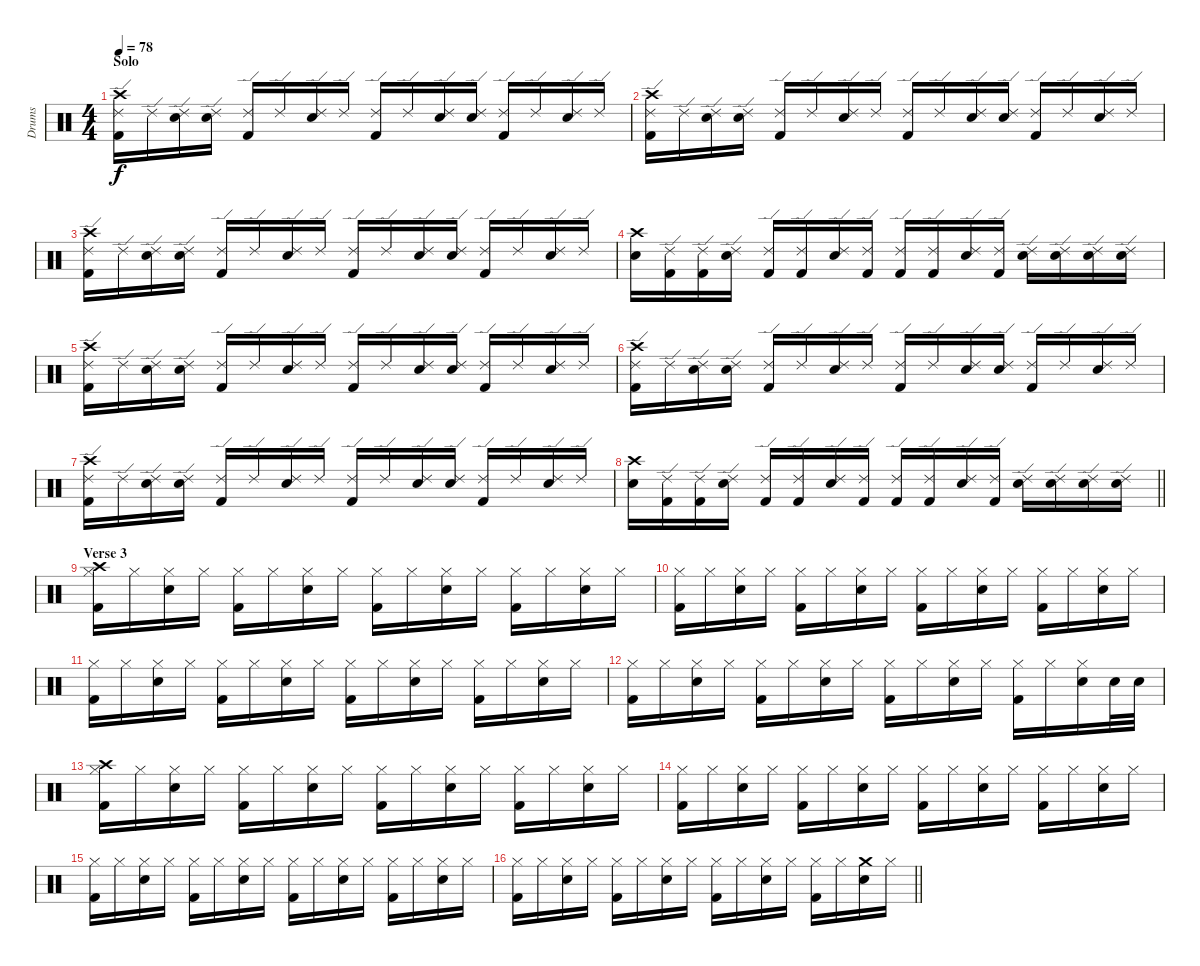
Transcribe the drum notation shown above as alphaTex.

\track ("Drums" "Drums") {instrument percussion}
\staff {score}
\articulation defaults
\ts (4 4)
\section ("" "Solo")
\tempo 78
\clef neutral
\ks c
("Crash high (hit)" "Ride (edge) 2" "Kick (hit) 2").16{dy f} "Ride (edge) 2".16 ("Ride (edge) 2" "Snare (hit) 2").16 ("Ride (edge) 2" "Snare (hit) 2").16 ("Ride (edge) 2" "Kick (hit) 2").16 "Ride (edge) 2".16 ("Ride (edge) 2" "Snare (hit) 2").16 "Ride (edge) 2".16 ("Ride (edge) 2" "Kick (hit) 2").16 "Ride (edge) 2".16 ("Ride (edge) 2" "Snare (hit) 2").16 ("Ride (edge) 2" "Snare (hit) 2").16 ("Ride (edge) 2" "Kick (hit) 2").16 "Ride (edge) 2".16 ("Ride (edge) 2" "Snare (hit) 2").16 "Ride (edge) 2".16 |
("Crash high (hit)" "Ride (edge) 2" "Kick (hit) 2").16 "Ride (edge) 2".16 ("Ride (edge) 2" "Snare (hit) 2").16 ("Ride (edge) 2" "Snare (hit) 2").16 ("Ride (edge) 2" "Kick (hit) 2").16 "Ride (edge) 2".16 ("Ride (edge) 2" "Snare (hit) 2").16 "Ride (edge) 2".16 ("Ride (edge) 2" "Kick (hit) 2").16 "Ride (edge) 2".16 ("Ride (edge) 2" "Snare (hit) 2").16 ("Ride (edge) 2" "Snare (hit) 2").16 ("Ride (edge) 2" "Kick (hit) 2").16 "Ride (edge) 2".16 ("Ride (edge) 2" "Snare (hit) 2").16 "Ride (edge) 2".16 |
("Crash high (hit)" "Ride (edge) 2" "Kick (hit) 2").16 "Ride (edge) 2".16 ("Ride (edge) 2" "Snare (hit) 2").16 ("Ride (edge) 2" "Snare (hit) 2").16 ("Ride (edge) 2" "Kick (hit) 2").16 "Ride (edge) 2".16 ("Ride (edge) 2" "Snare (hit) 2").16 "Ride (edge) 2".16 ("Ride (edge) 2" "Kick (hit) 2").16 "Ride (edge) 2".16 ("Ride (edge) 2" "Snare (hit) 2").16 ("Ride (edge) 2" "Snare (hit) 2").16 ("Ride (edge) 2" "Kick (hit) 2").16 "Ride (edge) 2".16 ("Ride (edge) 2" "Snare (hit) 2").16 "Ride (edge) 2".16 |
("Crash high (hit)" "Snare (hit) 2").16 ("Ride (edge) 2" "Kick (hit) 2").16 ("Ride (edge) 2" "Kick (hit) 2").16 ("Ride (edge) 2" "Snare (hit) 2").16 ("Ride (edge) 2" "Kick (hit) 2").16 ("Ride (edge) 2" "Kick (hit) 2").16 ("Ride (edge) 2" "Snare (hit) 2").16 ("Ride (edge) 2" "Kick (hit) 2").16 ("Ride (edge) 2" "Kick (hit) 2").16 ("Ride (edge) 2" "Kick (hit) 2").16 ("Ride (edge) 2" "Snare (hit) 2").16 ("Ride (edge) 2" "Kick (hit) 2").16 ("Ride (edge) 2" "Snare (hit) 2").16 ("Ride (edge) 2" "Snare (hit) 2").16 ("Ride (edge) 2" "Snare (hit) 2").16 ("Ride (edge) 2" "Snare (hit) 2").16 |
("Crash high (hit)" "Ride (edge) 2" "Kick (hit) 2").16 "Ride (edge) 2".16 ("Ride (edge) 2" "Snare (hit) 2").16 ("Ride (edge) 2" "Snare (hit) 2").16 ("Ride (edge) 2" "Kick (hit) 2").16 "Ride (edge) 2".16 ("Ride (edge) 2" "Snare (hit) 2").16 "Ride (edge) 2".16 ("Ride (edge) 2" "Kick (hit) 2").16 "Ride (edge) 2".16 ("Ride (edge) 2" "Snare (hit) 2").16 ("Ride (edge) 2" "Snare (hit) 2").16 ("Ride (edge) 2" "Kick (hit) 2").16 "Ride (edge) 2".16 ("Ride (edge) 2" "Snare (hit) 2").16 "Ride (edge) 2".16 |
("Crash high (hit)" "Ride (edge) 2" "Kick (hit) 2").16 "Ride (edge) 2".16 ("Ride (edge) 2" "Snare (hit) 2").16 ("Ride (edge) 2" "Snare (hit) 2").16 ("Ride (edge) 2" "Kick (hit) 2").16 "Ride (edge) 2".16 ("Ride (edge) 2" "Snare (hit) 2").16 "Ride (edge) 2".16 ("Ride (edge) 2" "Kick (hit) 2").16 "Ride (edge) 2".16 ("Ride (edge) 2" "Snare (hit) 2").16 ("Ride (edge) 2" "Snare (hit) 2").16 ("Ride (edge) 2" "Kick (hit) 2").16 "Ride (edge) 2".16 ("Ride (edge) 2" "Snare (hit) 2").16 "Ride (edge) 2".16 |
("Crash high (hit)" "Ride (edge) 2" "Kick (hit) 2").16 "Ride (edge) 2".16 ("Ride (edge) 2" "Snare (hit) 2").16 ("Ride (edge) 2" "Snare (hit) 2").16 ("Ride (edge) 2" "Kick (hit) 2").16 "Ride (edge) 2".16 ("Ride (edge) 2" "Snare (hit) 2").16 "Ride (edge) 2".16 ("Ride (edge) 2" "Kick (hit) 2").16 "Ride (edge) 2".16 ("Ride (edge) 2" "Snare (hit) 2").16 ("Ride (edge) 2" "Snare (hit) 2").16 ("Ride (edge) 2" "Kick (hit) 2").16 "Ride (edge) 2".16 ("Ride (edge) 2" "Snare (hit) 2").16 "Ride (edge) 2".16 |
\barLineRight lightlight
("Crash high (hit)" "Snare (hit) 2").16 ("Ride (edge) 2" "Kick (hit) 2").16 ("Ride (edge) 2" "Kick (hit) 2").16 ("Ride (edge) 2" "Snare (hit) 2").16 ("Ride (edge) 2" "Kick (hit) 2").16 ("Ride (edge) 2" "Kick (hit) 2").16 ("Ride (edge) 2" "Snare (hit) 2").16 ("Ride (edge) 2" "Kick (hit) 2").16 ("Ride (edge) 2" "Kick (hit) 2").16 ("Ride (edge) 2" "Kick (hit) 2").16 ("Ride (edge) 2" "Snare (hit) 2").16 ("Ride (edge) 2" "Kick (hit) 2").16 ("Ride (edge) 2" "Snare (hit) 2").16 ("Ride (edge) 2" "Snare (hit) 2").16 ("Ride (edge) 2" "Snare (hit) 2").16 ("Ride (edge) 2" "Snare (hit) 2").16 |
\section ("" "Verse 3")
("Crash high (hit)" "Hi-Hat (closed)" "Kick (hit) 2").16 "Hi-Hat (closed)".16 ("Hi-Hat (closed)" "Snare (hit) 2").16 "Hi-Hat (closed)".16 ("Hi-Hat (closed)" "Kick (hit) 2").16 "Hi-Hat (closed)".16 ("Hi-Hat (closed)" "Snare (hit) 2").16 "Hi-Hat (closed)".16 ("Hi-Hat (closed)" "Kick (hit) 2").16 "Hi-Hat (closed)".16 ("Hi-Hat (closed)" "Snare (hit) 2").16 "Hi-Hat (closed)".16 ("Hi-Hat (closed)" "Kick (hit) 2").16 "Hi-Hat (closed)".16 ("Hi-Hat (closed)" "Snare (hit) 2").16 "Hi-Hat (closed)".16 |
("Hi-Hat (closed)" "Kick (hit) 2").16 "Hi-Hat (closed)".16 ("Hi-Hat (closed)" "Snare (hit) 2").16 "Hi-Hat (closed)".16 ("Hi-Hat (closed)" "Kick (hit) 2").16 "Hi-Hat (closed)".16 ("Hi-Hat (closed)" "Snare (hit) 2").16 "Hi-Hat (closed)".16 ("Hi-Hat (closed)" "Kick (hit) 2").16 "Hi-Hat (closed)".16 ("Hi-Hat (closed)" "Snare (hit) 2").16 "Hi-Hat (closed)".16 ("Hi-Hat (closed)" "Kick (hit) 2").16 "Hi-Hat (closed)".16 ("Hi-Hat (closed)" "Snare (hit) 2").16 "Hi-Hat (closed)".16 |
("Hi-Hat (closed)" "Kick (hit) 2").16 "Hi-Hat (closed)".16 ("Hi-Hat (closed)" "Snare (hit) 2").16 "Hi-Hat (closed)".16 ("Hi-Hat (closed)" "Kick (hit) 2").16 "Hi-Hat (closed)".16 ("Hi-Hat (closed)" "Snare (hit) 2").16 "Hi-Hat (closed)".16 ("Hi-Hat (closed)" "Kick (hit) 2").16 "Hi-Hat (closed)".16 ("Hi-Hat (closed)" "Snare (hit) 2").16 "Hi-Hat (closed)".16 ("Hi-Hat (closed)" "Kick (hit) 2").16 "Hi-Hat (closed)".16 ("Hi-Hat (closed)" "Snare (hit) 2").16 "Hi-Hat (closed)".16 |
("Hi-Hat (closed)" "Kick (hit) 2").16 "Hi-Hat (closed)".16 ("Hi-Hat (closed)" "Snare (hit) 2").16 "Hi-Hat (closed)".16 ("Hi-Hat (closed)" "Kick (hit) 2").16 "Hi-Hat (closed)".16 ("Hi-Hat (closed)" "Snare (hit) 2").16 "Hi-Hat (closed)".16 ("Hi-Hat (closed)" "Kick (hit) 2").16 "Hi-Hat (closed)".16 ("Hi-Hat (closed)" "Snare (hit) 2").16 "Hi-Hat (closed)".16 ("Hi-Hat (closed)" "Kick (hit) 2").16 "Hi-Hat (closed)".16 ("Hi-Hat (closed)" "Snare (hit) 2").16 "Snare (hit) 2".32 "Snare (hit) 2".32 |
("Crash high (hit)" "Hi-Hat (closed)" "Kick (hit) 2").16 "Hi-Hat (closed)".16 ("Hi-Hat (closed)" "Snare (hit) 2").16 "Hi-Hat (closed)".16 ("Hi-Hat (closed)" "Kick (hit) 2").16 "Hi-Hat (closed)".16 ("Hi-Hat (closed)" "Snare (hit) 2").16 "Hi-Hat (closed)".16 ("Hi-Hat (closed)" "Kick (hit) 2").16 "Hi-Hat (closed)".16 ("Hi-Hat (closed)" "Snare (hit) 2").16 "Hi-Hat (closed)".16 ("Hi-Hat (closed)" "Kick (hit) 2").16 "Hi-Hat (closed)".16 ("Hi-Hat (closed)" "Snare (hit) 2").16 "Hi-Hat (closed)".16 |
("Hi-Hat (closed)" "Kick (hit) 2").16 "Hi-Hat (closed)".16 ("Hi-Hat (closed)" "Snare (hit) 2").16 "Hi-Hat (closed)".16 ("Hi-Hat (closed)" "Kick (hit) 2").16 "Hi-Hat (closed)".16 ("Hi-Hat (closed)" "Snare (hit) 2").16 "Hi-Hat (closed)".16 ("Hi-Hat (closed)" "Kick (hit) 2").16 "Hi-Hat (closed)".16 ("Hi-Hat (closed)" "Snare (hit) 2").16 "Hi-Hat (closed)".16 ("Hi-Hat (closed)" "Kick (hit) 2").16 "Hi-Hat (closed)".16 ("Hi-Hat (closed)" "Snare (hit) 2").16 "Hi-Hat (closed)".16 |
("Hi-Hat (closed)" "Kick (hit) 2").16 "Hi-Hat (closed)".16 ("Hi-Hat (closed)" "Snare (hit) 2").16 "Hi-Hat (closed)".16 ("Hi-Hat (closed)" "Kick (hit) 2").16 "Hi-Hat (closed)".16 ("Hi-Hat (closed)" "Snare (hit) 2").16 "Hi-Hat (closed)".16 ("Hi-Hat (closed)" "Kick (hit) 2").16 "Hi-Hat (closed)".16 ("Hi-Hat (closed)" "Snare (hit) 2").16 "Hi-Hat (closed)".16 ("Hi-Hat (closed)" "Kick (hit) 2").16 "Hi-Hat (closed)".16 ("Hi-Hat (closed)" "Snare (hit) 2").16 "Hi-Hat (closed)".16 |
\barLineRight lightlight
("Hi-Hat (closed)" "Kick (hit) 2").16 "Hi-Hat (closed)".16 ("Hi-Hat (closed)" "Snare (hit) 2").16 "Hi-Hat (closed)".16 ("Hi-Hat (closed)" "Kick (hit) 2").16 "Hi-Hat (closed)".16 ("Hi-Hat (closed)" "Snare (hit) 2").16 "Hi-Hat (closed)".16 ("Hi-Hat (closed)" "Kick (hit) 2").16 "Hi-Hat (closed)".16 ("Hi-Hat (closed)" "Snare (hit) 2").16 "Hi-Hat (closed)".16 ("Hi-Hat (closed)" "Kick (hit) 2").16 "Hi-Hat (closed)".16 ("Crash medium (hit)" "Snare (hit) 2").16 "Hi-Hat (closed)".16
